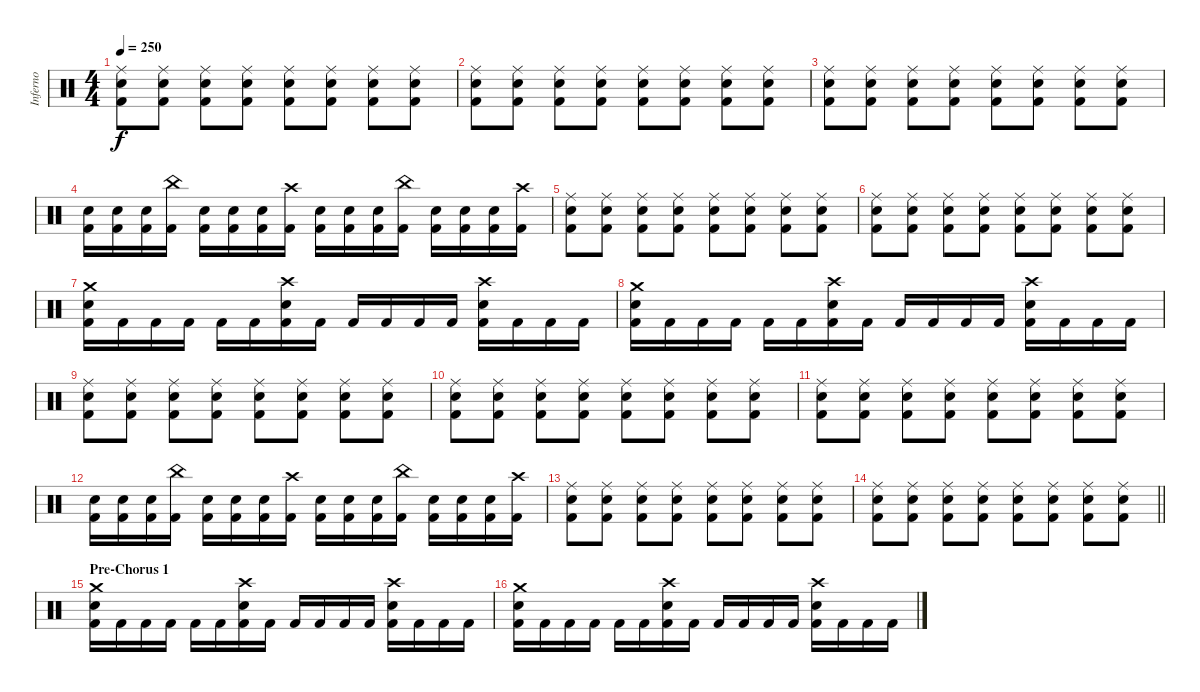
\track ("Inferno" "Inferno") {instrument percussion}
\staff {score}
\articulation defaults
\ts (4 4)
\tempo 250
\clef neutral
\ks c
("Ride (middle)" "Electric Snare (hit)" "Kick (hit) 2").8{dy f} ("Ride (middle)" "Electric Snare (hit)" "Kick (hit) 2").8 ("Ride (middle)" "Electric Snare (hit)" "Kick (hit) 2").8 ("Ride (middle)" "Electric Snare (hit)" "Kick (hit) 2").8 ("Ride (middle)" "Electric Snare (hit)" "Kick (hit) 2").8 ("Ride (middle)" "Electric Snare (hit)" "Kick (hit) 2").8 ("Ride (middle)" "Electric Snare (hit)" "Kick (hit) 2").8 ("Ride (middle)" "Electric Snare (hit)" "Kick (hit) 2").8 |
("Ride (middle)" "Electric Snare (hit)" "Kick (hit) 2").8 ("Ride (middle)" "Electric Snare (hit)" "Kick (hit) 2").8 ("Ride (middle)" "Electric Snare (hit)" "Kick (hit) 2").8 ("Ride (middle)" "Electric Snare (hit)" "Kick (hit) 2").8 ("Ride (middle)" "Electric Snare (hit)" "Kick (hit) 2").8 ("Ride (middle)" "Electric Snare (hit)" "Kick (hit) 2").8 ("Ride (middle)" "Electric Snare (hit)" "Kick (hit) 2").8 ("Ride (middle)" "Electric Snare (hit)" "Kick (hit) 2").8 |
("Ride (middle)" "Electric Snare (hit)" "Kick (hit) 2").8 ("Ride (middle)" "Electric Snare (hit)" "Kick (hit) 2").8 ("Ride (middle)" "Electric Snare (hit)" "Kick (hit) 2").8 ("Ride (middle)" "Electric Snare (hit)" "Kick (hit) 2").8 ("Ride (middle)" "Electric Snare (hit)" "Kick (hit) 2").8 ("Ride (middle)" "Electric Snare (hit)" "Kick (hit) 2").8 ("Ride (middle)" "Electric Snare (hit)" "Kick (hit) 2").8 ("Ride (middle)" "Electric Snare (hit)" "Kick (hit) 2").8 |
("Electric Snare (hit)" "Kick (hit) 2").16 ("Electric Snare (hit)" "Kick (hit) 2").16 ("Electric Snare (hit)" "Kick (hit) 2").16 ("China (hit)" "Kick (hit) 2").16 ("Electric Snare (hit)" "Kick (hit) 2").16 ("Electric Snare (hit)" "Kick (hit) 2").16 ("Electric Snare (hit)" "Kick (hit) 2").16 ("Crash high (hit)" "Kick (hit) 2").16 ("Electric Snare (hit)" "Kick (hit) 2").16 ("Electric Snare (hit)" "Kick (hit) 2").16 ("Electric Snare (hit)" "Kick (hit) 2").16 ("China (hit)" "Kick (hit) 2").16 ("Electric Snare (hit)" "Kick (hit) 2").16 ("Electric Snare (hit)" "Kick (hit) 2").16 ("Electric Snare (hit)" "Kick (hit) 2").16 ("Crash high (hit)" "Kick (hit) 2").16 |
("Ride (middle)" "Electric Snare (hit)" "Kick (hit) 2").8 ("Ride (middle)" "Electric Snare (hit)" "Kick (hit) 2").8 ("Ride (middle)" "Electric Snare (hit)" "Kick (hit) 2").8 ("Ride (middle)" "Electric Snare (hit)" "Kick (hit) 2").8 ("Ride (middle)" "Electric Snare (hit)" "Kick (hit) 2").8 ("Ride (middle)" "Electric Snare (hit)" "Kick (hit) 2").8 ("Ride (middle)" "Electric Snare (hit)" "Kick (hit) 2").8 ("Ride (middle)" "Electric Snare (hit)" "Kick (hit) 2").8 |
("Ride (middle)" "Electric Snare (hit)" "Kick (hit) 2").8 ("Ride (middle)" "Electric Snare (hit)" "Kick (hit) 2").8 ("Ride (middle)" "Electric Snare (hit)" "Kick (hit) 2").8 ("Ride (middle)" "Electric Snare (hit)" "Kick (hit) 2").8 ("Ride (middle)" "Electric Snare (hit)" "Kick (hit) 2").8 ("Ride (middle)" "Electric Snare (hit)" "Kick (hit) 2").8 ("Ride (middle)" "Electric Snare (hit)" "Kick (hit) 2").8 ("Ride (middle)" "Electric Snare (hit)" "Kick (hit) 2").8 |
("Crash medium (hit)" "Electric Snare (hit)" "Kick (hit) 2").16 "Kick (hit) 2".16 "Kick (hit) 2".16 "Kick (hit) 2".16 "Kick (hit) 2".16 "Kick (hit) 2".16 ("Crash high (hit)" "Electric Snare (hit)" "Kick (hit) 2").16 "Kick (hit) 2".16 "Kick (hit) 2".16 "Kick (hit) 2".16 "Kick (hit) 2".16 "Kick (hit) 2".16 ("Crash high (hit)" "Electric Snare (hit)" "Kick (hit) 2").16 "Kick (hit) 2".16 "Kick (hit) 2".16 "Kick (hit) 2".16 |
("Crash medium (hit)" "Electric Snare (hit)" "Kick (hit) 2").16 "Kick (hit) 2".16 "Kick (hit) 2".16 "Kick (hit) 2".16 "Kick (hit) 2".16 "Kick (hit) 2".16 ("Crash high (hit)" "Electric Snare (hit)" "Kick (hit) 2").16 "Kick (hit) 2".16 "Kick (hit) 2".16 "Kick (hit) 2".16 "Kick (hit) 2".16 "Kick (hit) 2".16 ("Crash high (hit)" "Electric Snare (hit)" "Kick (hit) 2").16 "Kick (hit) 2".16 "Kick (hit) 2".16 "Kick (hit) 2".16 |
("Ride (middle)" "Electric Snare (hit)" "Kick (hit) 2").8 ("Ride (middle)" "Electric Snare (hit)" "Kick (hit) 2").8 ("Ride (middle)" "Electric Snare (hit)" "Kick (hit) 2").8 ("Ride (middle)" "Electric Snare (hit)" "Kick (hit) 2").8 ("Ride (middle)" "Electric Snare (hit)" "Kick (hit) 2").8 ("Ride (middle)" "Electric Snare (hit)" "Kick (hit) 2").8 ("Ride (middle)" "Electric Snare (hit)" "Kick (hit) 2").8 ("Ride (middle)" "Electric Snare (hit)" "Kick (hit) 2").8 |
("Ride (middle)" "Electric Snare (hit)" "Kick (hit) 2").8 ("Ride (middle)" "Electric Snare (hit)" "Kick (hit) 2").8 ("Ride (middle)" "Electric Snare (hit)" "Kick (hit) 2").8 ("Ride (middle)" "Electric Snare (hit)" "Kick (hit) 2").8 ("Ride (middle)" "Electric Snare (hit)" "Kick (hit) 2").8 ("Ride (middle)" "Electric Snare (hit)" "Kick (hit) 2").8 ("Ride (middle)" "Electric Snare (hit)" "Kick (hit) 2").8 ("Ride (middle)" "Electric Snare (hit)" "Kick (hit) 2").8 |
("Ride (middle)" "Electric Snare (hit)" "Kick (hit) 2").8 ("Ride (middle)" "Electric Snare (hit)" "Kick (hit) 2").8 ("Ride (middle)" "Electric Snare (hit)" "Kick (hit) 2").8 ("Ride (middle)" "Electric Snare (hit)" "Kick (hit) 2").8 ("Ride (middle)" "Electric Snare (hit)" "Kick (hit) 2").8 ("Ride (middle)" "Electric Snare (hit)" "Kick (hit) 2").8 ("Ride (middle)" "Electric Snare (hit)" "Kick (hit) 2").8 ("Ride (middle)" "Electric Snare (hit)" "Kick (hit) 2").8 |
("Electric Snare (hit)" "Kick (hit) 2").16 ("Electric Snare (hit)" "Kick (hit) 2").16 ("Electric Snare (hit)" "Kick (hit) 2").16 ("China (hit)" "Kick (hit) 2").16 ("Electric Snare (hit)" "Kick (hit) 2").16 ("Electric Snare (hit)" "Kick (hit) 2").16 ("Electric Snare (hit)" "Kick (hit) 2").16 ("Crash high (hit)" "Kick (hit) 2").16 ("Electric Snare (hit)" "Kick (hit) 2").16 ("Electric Snare (hit)" "Kick (hit) 2").16 ("Electric Snare (hit)" "Kick (hit) 2").16 ("China (hit)" "Kick (hit) 2").16 ("Electric Snare (hit)" "Kick (hit) 2").16 ("Electric Snare (hit)" "Kick (hit) 2").16 ("Electric Snare (hit)" "Kick (hit) 2").16 ("Crash high (hit)" "Kick (hit) 2").16 |
("Ride (middle)" "Electric Snare (hit)" "Kick (hit) 2").8 ("Ride (middle)" "Electric Snare (hit)" "Kick (hit) 2").8 ("Ride (middle)" "Electric Snare (hit)" "Kick (hit) 2").8 ("Ride (middle)" "Electric Snare (hit)" "Kick (hit) 2").8 ("Ride (middle)" "Electric Snare (hit)" "Kick (hit) 2").8 ("Ride (middle)" "Electric Snare (hit)" "Kick (hit) 2").8 ("Ride (middle)" "Electric Snare (hit)" "Kick (hit) 2").8 ("Ride (middle)" "Electric Snare (hit)" "Kick (hit) 2").8 |
\barLineRight lightlight
("Ride (middle)" "Electric Snare (hit)" "Kick (hit) 2").8 ("Ride (middle)" "Electric Snare (hit)" "Kick (hit) 2").8 ("Ride (middle)" "Electric Snare (hit)" "Kick (hit) 2").8 ("Ride (middle)" "Electric Snare (hit)" "Kick (hit) 2").8 ("Ride (middle)" "Electric Snare (hit)" "Kick (hit) 2").8 ("Ride (middle)" "Electric Snare (hit)" "Kick (hit) 2").8 ("Ride (middle)" "Electric Snare (hit)" "Kick (hit) 2").8 ("Ride (middle)" "Electric Snare (hit)" "Kick (hit) 2").8 |
\section ("" "Pre-Chorus 1")
("Crash medium (hit)" "Electric Snare (hit)" "Kick (hit) 2").16 "Kick (hit) 2".16 "Kick (hit) 2".16 "Kick (hit) 2".16 "Kick (hit) 2".16 "Kick (hit) 2".16 ("Crash high (hit)" "Electric Snare (hit)" "Kick (hit) 2").16 "Kick (hit) 2".16 "Kick (hit) 2".16 "Kick (hit) 2".16 "Kick (hit) 2".16 "Kick (hit) 2".16 ("Crash high (hit)" "Electric Snare (hit)" "Kick (hit) 2").16 "Kick (hit) 2".16 "Kick (hit) 2".16 "Kick (hit) 2".16 |
("Crash medium (hit)" "Electric Snare (hit)" "Kick (hit) 2").16 "Kick (hit) 2".16 "Kick (hit) 2".16 "Kick (hit) 2".16 "Kick (hit) 2".16 "Kick (hit) 2".16 ("Crash high (hit)" "Electric Snare (hit)" "Kick (hit) 2").16 "Kick (hit) 2".16 "Kick (hit) 2".16 "Kick (hit) 2".16 "Kick (hit) 2".16 "Kick (hit) 2".16 ("Crash high (hit)" "Electric Snare (hit)" "Kick (hit) 2").16 "Kick (hit) 2".16 "Kick (hit) 2".16 "Kick (hit) 2".16
